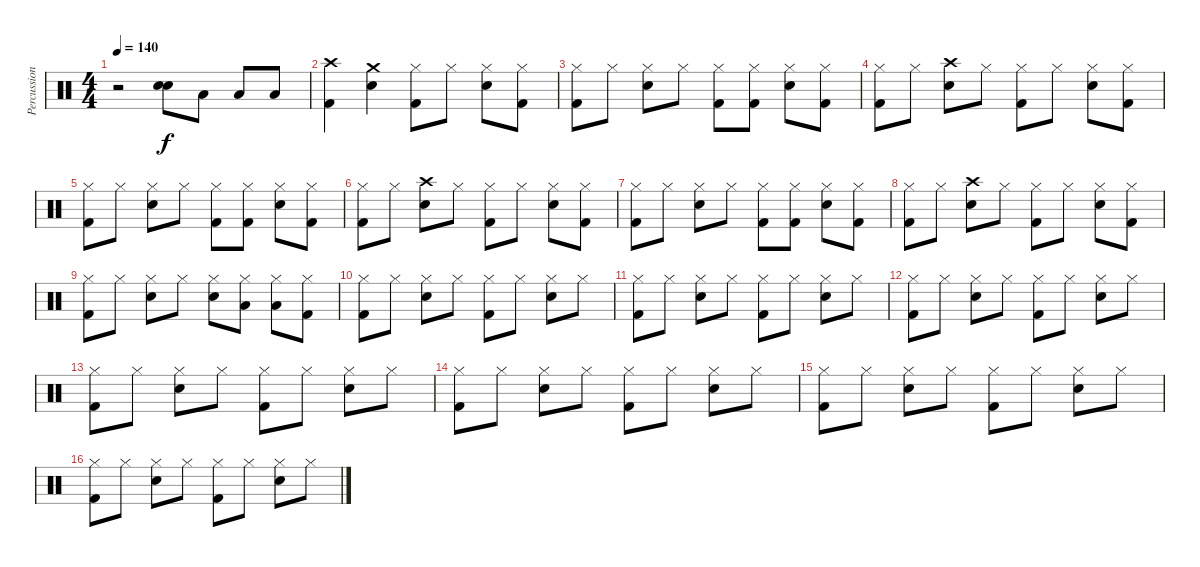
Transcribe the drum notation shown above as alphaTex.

\track ("Percussion" "Percussion") {instrument percussion}
\staff {score}
\articulation defaults
\ts (4 4)
\tempo 140
\clef neutral
\ks c
r.2{dy f} ("Snare (hit) 2" "Snare (hit) 2").8 "Low Tom (hit)".8 "Low Tom (hit)".8 "Low Tom (hit)".8 |
("Crash high (hit)" "Kick (hit) 2").4 ("Crash medium (hit)" "Snare (hit) 2").4 ("Hi-Hat (closed)" "Kick (hit) 2").8 "Hi-Hat (closed)".8 ("Hi-Hat (closed)" "Snare (hit) 2").8 ("Hi-Hat (closed)" "Kick (hit) 2").8 |
("Hi-Hat (closed)" "Kick (hit) 2").8 "Hi-Hat (closed)".8 ("Hi-Hat (closed)" "Snare (hit) 2").8 "Hi-Hat (closed)".8 ("Hi-Hat (closed)" "Kick (hit) 2").8 ("Hi-Hat (closed)" "Kick (hit) 2").8 ("Hi-Hat (closed)" "Snare (hit) 2").8 ("Hi-Hat (closed)" "Kick (hit) 2").8 |
("Hi-Hat (closed)" "Kick (hit) 2").8 "Hi-Hat (closed)".8 ("Crash high (hit)" "Snare (hit) 2").8 "Hi-Hat (closed)".8 ("Hi-Hat (closed)" "Kick (hit) 2").8 "Hi-Hat (closed)".8 ("Hi-Hat (closed)" "Snare (hit) 2").8 ("Hi-Hat (closed)" "Kick (hit) 2").8 |
("Hi-Hat (closed)" "Kick (hit) 2").8 "Hi-Hat (closed)".8 ("Hi-Hat (closed)" "Snare (hit) 2").8 "Hi-Hat (closed)".8 ("Hi-Hat (closed)" "Kick (hit) 2").8 ("Hi-Hat (closed)" "Kick (hit) 2").8 ("Hi-Hat (closed)" "Snare (hit) 2").8 ("Hi-Hat (closed)" "Kick (hit) 2").8 |
("Hi-Hat (closed)" "Kick (hit) 2").8 "Hi-Hat (closed)".8 ("Crash high (hit)" "Snare (hit) 2").8 "Hi-Hat (closed)".8 ("Hi-Hat (closed)" "Kick (hit) 2").8 "Hi-Hat (closed)".8 ("Hi-Hat (closed)" "Snare (hit) 2").8 ("Hi-Hat (closed)" "Kick (hit) 2").8 |
("Hi-Hat (closed)" "Kick (hit) 2").8 "Hi-Hat (closed)".8 ("Hi-Hat (closed)" "Snare (hit) 2").8 "Hi-Hat (closed)".8 ("Hi-Hat (closed)" "Kick (hit) 2").8 ("Hi-Hat (closed)" "Kick (hit) 2").8 ("Hi-Hat (closed)" "Snare (hit) 2").8 ("Hi-Hat (closed)" "Kick (hit) 2").8 |
("Hi-Hat (closed)" "Kick (hit) 2").8 "Hi-Hat (closed)".8 ("Crash high (hit)" "Snare (hit) 2").8 "Hi-Hat (closed)".8 ("Hi-Hat (closed)" "Kick (hit) 2").8 "Hi-Hat (closed)".8 ("Hi-Hat (closed)" "Snare (hit) 2").8 ("Hi-Hat (closed)" "Kick (hit) 2").8 |
("Hi-Hat (closed)" "Kick (hit) 2").8 "Hi-Hat (closed)".8 ("Hi-Hat (closed)" "Snare (hit) 2").8 "Hi-Hat (closed)".8 ("Hi-Hat (closed)" "Snare (hit) 2").8 ("Hi-Hat (closed)" "Low Tom (hit)").8 ("Hi-Hat (closed)" "Low Tom (hit)").8 ("Hi-Hat (closed)" "Kick (hit) 2").8 |
("Hi-Hat (closed)" "Kick (hit) 2").8 "Hi-Hat (closed)".8 ("Hi-Hat (closed)" "Snare (hit) 2").8 "Hi-Hat (closed)".8 ("Hi-Hat (closed)" "Kick (hit) 2").8 "Hi-Hat (closed)".8 ("Hi-Hat (closed)" "Snare (hit) 2").8 "Hi-Hat (closed)".8 |
("Hi-Hat (closed)" "Kick (hit) 2").8 "Hi-Hat (closed)".8 ("Hi-Hat (closed)" "Snare (hit) 2").8 "Hi-Hat (closed)".8 ("Hi-Hat (closed)" "Kick (hit) 2").8 "Hi-Hat (closed)".8 ("Hi-Hat (closed)" "Snare (hit) 2").8 "Hi-Hat (closed)".8 |
("Hi-Hat (closed)" "Kick (hit) 2").8 "Hi-Hat (closed)".8 ("Hi-Hat (closed)" "Snare (hit) 2").8 "Hi-Hat (closed)".8 ("Hi-Hat (closed)" "Kick (hit) 2").8 "Hi-Hat (closed)".8 ("Hi-Hat (closed)" "Snare (hit) 2").8 "Hi-Hat (closed)".8 |
("Hi-Hat (closed)" "Kick (hit) 2").8 "Hi-Hat (closed)".8 ("Hi-Hat (closed)" "Snare (hit) 2").8 "Hi-Hat (closed)".8 ("Hi-Hat (closed)" "Kick (hit) 2").8 "Hi-Hat (closed)".8 ("Hi-Hat (closed)" "Snare (hit) 2").8 "Hi-Hat (closed)".8 |
("Hi-Hat (closed)" "Kick (hit) 2").8 "Hi-Hat (closed)".8 ("Hi-Hat (closed)" "Snare (hit) 2").8 "Hi-Hat (closed)".8 ("Hi-Hat (closed)" "Kick (hit) 2").8 "Hi-Hat (closed)".8 ("Hi-Hat (closed)" "Snare (hit) 2").8 "Hi-Hat (closed)".8 |
("Hi-Hat (closed)" "Kick (hit) 2").8 "Hi-Hat (closed)".8 ("Hi-Hat (closed)" "Snare (hit) 2").8 "Hi-Hat (closed)".8 ("Hi-Hat (closed)" "Kick (hit) 2").8 "Hi-Hat (closed)".8 ("Hi-Hat (closed)" "Snare (hit) 2").8 "Hi-Hat (closed)".8 |
("Hi-Hat (closed)" "Kick (hit) 2").8 "Hi-Hat (closed)".8 ("Hi-Hat (closed)" "Snare (hit) 2").8 "Hi-Hat (closed)".8 ("Hi-Hat (closed)" "Kick (hit) 2").8 "Hi-Hat (closed)".8 ("Hi-Hat (closed)" "Snare (hit) 2").8 "Hi-Hat (closed)".8
